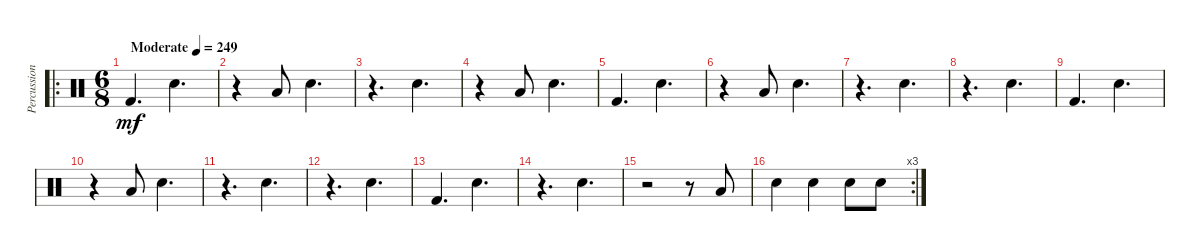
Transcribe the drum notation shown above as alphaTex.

\track ("Percussion" "Percussion") {instrument percussion}
\staff {score}
\articulation defaults
\ro
\ts (6 8)
\tempo (249 "Moderate")
\clef neutral
\ks c "Kick (hit) 2".4{d dy mf} "Snare (hit) 2".4{d}
|
r.4 "Low Tom (hit)".8 "Snare (hit) 2".4{d} |
r.4{d} "Snare (hit) 2".4{d} |
r.4 "Low Tom (hit)".8 "Snare (hit) 2".4{d} |
"Kick (hit) 2".4{d} "Snare (hit) 2".4{d} |
r.4 "Low Tom (hit)".8 "Snare (hit) 2".4{d} |
r.4{d} "Snare (hit) 2".4{d} |
r.4{d} "Snare (hit) 2".4{d} |
"Kick (hit) 2".4{d} "Snare (hit) 2".4{d} |
r.4 "Low Tom (hit)".8 "Snare (hit) 2".4{d} |
r.4{d} "Snare (hit) 2".4{d} |
r.4{d} "Snare (hit) 2".4{d} |
"Kick (hit) 2".4{d} "Snare (hit) 2".4{d} |
r.4{d} "Snare (hit) 2".4{d} |
r.2 r.8 "Low Tom (hit)".8 |
\rc 3 "Snare (hit) 2".4 "Snare (hit) 2".4 "Snare (hit) 2".8 "Snare (hit) 2".8
